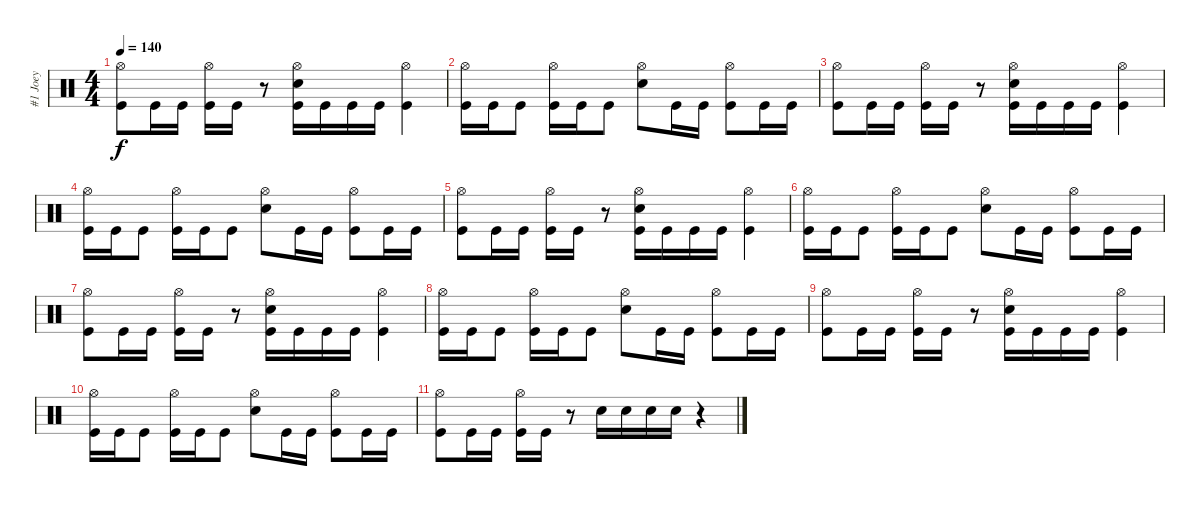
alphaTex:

\track ("#1 Joey" "#1 Joey") {solo instrument percussion}
\staff {score}
\articulation defaults
\ts (4 4)
\tempo 140
\clef neutral
\ks c
("Hi-Hat (open)" "Kick (hit)").8{dy f} "Kick (hit)".16 "Kick (hit)".16 ("Hi-Hat (open)" "Kick (hit)").16 "Kick (hit)".16 r.8 ("Hi-Hat (open)" "Electric Snare (hit)" "Kick (hit)").16 "Kick (hit)".16 "Kick (hit)".16 "Kick (hit)".16 ("Hi-Hat (open)" "Kick (hit)").4 |
("Hi-Hat (open)" "Kick (hit)").16 "Kick (hit)".16 "Kick (hit)".8 ("Hi-Hat (open)" "Kick (hit)").16 "Kick (hit)".16 "Kick (hit)".8 ("Hi-Hat (open)" "Electric Snare (hit)").8 "Kick (hit)".16 "Kick (hit)".16 ("Hi-Hat (open)" "Kick (hit)").8 "Kick (hit)".16 "Kick (hit)".16 |
("Hi-Hat (open)" "Kick (hit)").8 "Kick (hit)".16 "Kick (hit)".16 ("Hi-Hat (open)" "Kick (hit)").16 "Kick (hit)".16 r.8 ("Hi-Hat (open)" "Electric Snare (hit)" "Kick (hit)").16 "Kick (hit)".16 "Kick (hit)".16 "Kick (hit)".16 ("Hi-Hat (open)" "Kick (hit)").4 |
("Hi-Hat (open)" "Kick (hit)").16 "Kick (hit)".16 "Kick (hit)".8 ("Hi-Hat (open)" "Kick (hit)").16 "Kick (hit)".16 "Kick (hit)".8 ("Hi-Hat (open)" "Electric Snare (hit)").8 "Kick (hit)".16 "Kick (hit)".16 ("Hi-Hat (open)" "Kick (hit)").8 "Kick (hit)".16 "Kick (hit)".16 |
("Hi-Hat (open)" "Kick (hit)").8 "Kick (hit)".16 "Kick (hit)".16 ("Hi-Hat (open)" "Kick (hit)").16 "Kick (hit)".16 r.8 ("Hi-Hat (open)" "Electric Snare (hit)" "Kick (hit)").16 "Kick (hit)".16 "Kick (hit)".16 "Kick (hit)".16 ("Hi-Hat (open)" "Kick (hit)").4 |
("Hi-Hat (open)" "Kick (hit)").16 "Kick (hit)".16 "Kick (hit)".8 ("Hi-Hat (open)" "Kick (hit)").16 "Kick (hit)".16 "Kick (hit)".8 ("Hi-Hat (open)" "Electric Snare (hit)").8 "Kick (hit)".16 "Kick (hit)".16 ("Hi-Hat (open)" "Kick (hit)").8 "Kick (hit)".16 "Kick (hit)".16 |
("Hi-Hat (open)" "Kick (hit)").8 "Kick (hit)".16 "Kick (hit)".16 ("Hi-Hat (open)" "Kick (hit)").16 "Kick (hit)".16 r.8 ("Hi-Hat (open)" "Electric Snare (hit)" "Kick (hit)").16 "Kick (hit)".16 "Kick (hit)".16 "Kick (hit)".16 ("Hi-Hat (open)" "Kick (hit)").4 |
("Hi-Hat (open)" "Kick (hit)").16 "Kick (hit)".16 "Kick (hit)".8 ("Hi-Hat (open)" "Kick (hit)").16 "Kick (hit)".16 "Kick (hit)".8 ("Hi-Hat (open)" "Electric Snare (hit)").8 "Kick (hit)".16 "Kick (hit)".16 ("Hi-Hat (open)" "Kick (hit)").8 "Kick (hit)".16 "Kick (hit)".16 |
("Hi-Hat (open)" "Kick (hit)").8 "Kick (hit)".16 "Kick (hit)".16 ("Hi-Hat (open)" "Kick (hit)").16 "Kick (hit)".16 r.8 ("Hi-Hat (open)" "Electric Snare (hit)" "Kick (hit)").16 "Kick (hit)".16 "Kick (hit)".16 "Kick (hit)".16 ("Hi-Hat (open)" "Kick (hit)").4 |
("Hi-Hat (open)" "Kick (hit)").16 "Kick (hit)".16 "Kick (hit)".8 ("Hi-Hat (open)" "Kick (hit)").16 "Kick (hit)".16 "Kick (hit)".8 ("Hi-Hat (open)" "Electric Snare (hit)").8 "Kick (hit)".16 "Kick (hit)".16 ("Hi-Hat (open)" "Kick (hit)").8 "Kick (hit)".16 "Kick (hit)".16 |
("Hi-Hat (open)" "Kick (hit)").8 "Kick (hit)".16 "Kick (hit)".16 ("Hi-Hat (open)" "Kick (hit)").16 "Kick (hit)".16 r.8 "Electric Snare (hit)".16 "Electric Snare (hit)".16 "Electric Snare (hit)".16 "Electric Snare (hit)".16 r.4
